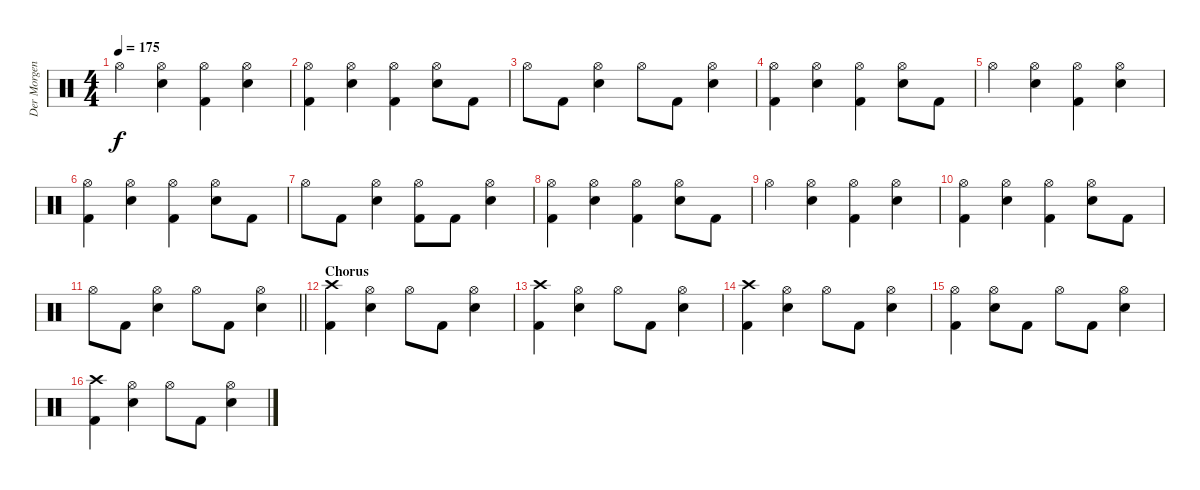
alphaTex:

\track ("Der Morgenstern" "Der Morgen") {instrument percussion}
\staff {score}
\articulation defaults
\ts (4 4)
\tempo 175
\clef neutral
\ks c "Hi-Hat (open)".4{dy f}
("Hi-Hat (open)" "Electric Snare (hit)").4 ("Hi-Hat (open)" "Kick (hit) 2").4 ("Hi-Hat (open)" "Electric Snare (hit)").4 |
("Hi-Hat (open)" "Kick (hit) 2").4 ("Hi-Hat (open)" "Electric Snare (hit)").4 ("Hi-Hat (open)" "Kick (hit) 2").4 ("Hi-Hat (open)" "Electric Snare (hit)").8 "Kick (hit) 2".8 |
"Hi-Hat (open)".8 "Kick (hit) 2".8 ("Hi-Hat (open)" "Electric Snare (hit)").4 "Hi-Hat (open)".8 "Kick (hit) 2".8 ("Hi-Hat (open)" "Electric Snare (hit)").4 |
("Hi-Hat (open)" "Kick (hit) 2").4 ("Hi-Hat (open)" "Electric Snare (hit)").4 ("Hi-Hat (open)" "Kick (hit) 2").4 ("Hi-Hat (open)" "Electric Snare (hit)").8 "Kick (hit) 2".8 |
"Hi-Hat (open)".4 ("Hi-Hat (open)" "Electric Snare (hit)").4 ("Hi-Hat (open)" "Kick (hit) 2").4 ("Hi-Hat (open)" "Electric Snare (hit)").4 |
("Hi-Hat (open)" "Kick (hit) 2").4 ("Hi-Hat (open)" "Electric Snare (hit)").4 ("Hi-Hat (open)" "Kick (hit) 2").4 ("Hi-Hat (open)" "Electric Snare (hit)").8 "Kick (hit) 2".8 |
"Hi-Hat (open)".8 "Kick (hit) 2".8 ("Hi-Hat (open)" "Electric Snare (hit)").4 ("Hi-Hat (open)" "Kick (hit) 2").8 "Kick (hit) 2".8 ("Hi-Hat (open)" "Electric Snare (hit)").4 |
("Hi-Hat (open)" "Kick (hit) 2").4 ("Hi-Hat (open)" "Electric Snare (hit)").4 ("Hi-Hat (open)" "Kick (hit) 2").4 ("Hi-Hat (open)" "Electric Snare (hit)").8 "Kick (hit) 2".8 |
"Hi-Hat (open)".4 ("Hi-Hat (open)" "Electric Snare (hit)").4 ("Hi-Hat (open)" "Kick (hit) 2").4 ("Hi-Hat (open)" "Electric Snare (hit)").4 |
("Hi-Hat (open)" "Kick (hit) 2").4 ("Hi-Hat (open)" "Electric Snare (hit)").4 ("Hi-Hat (open)" "Kick (hit) 2").4 ("Hi-Hat (open)" "Electric Snare (hit)").8 "Kick (hit) 2".8 |
\barLineRight lightlight "Hi-Hat (open)".8 "Kick (hit) 2".8
("Hi-Hat (open)" "Electric Snare (hit)").4 "Hi-Hat (open)".8 "Kick (hit) 2".8 ("Hi-Hat (open)" "Electric Snare (hit)").4 |
\section ("" "Chorus")
("Crash high (hit)" "Kick (hit) 2").4 ("Hi-Hat (open)" "Electric Snare (hit)").4 "Hi-Hat (open)".8 "Kick (hit) 2".8 ("Hi-Hat (open)" "Electric Snare (hit)").4 |
("Crash high (hit)" "Kick (hit) 2").4 ("Hi-Hat (open)" "Electric Snare (hit)").4 "Hi-Hat (open)".8 "Kick (hit) 2".8 ("Hi-Hat (open)" "Electric Snare (hit)").4 |
("Crash high (hit)" "Kick (hit) 2").4 ("Hi-Hat (open)" "Electric Snare (hit)").4 "Hi-Hat (open)".8 "Kick (hit) 2".8 ("Hi-Hat (open)" "Electric Snare (hit)").4 |
("Hi-Hat (open)" "Kick (hit) 2").4 ("Hi-Hat (open)" "Electric Snare (hit)").8 "Kick (hit) 2".8 "Hi-Hat (open)".8 "Kick (hit) 2".8 ("Hi-Hat (open)" "Electric Snare (hit)").4 |
("Crash high (hit)" "Kick (hit) 2").4 ("Hi-Hat (open)" "Electric Snare (hit)").4 "Hi-Hat (open)".8 "Kick (hit) 2".8 ("Hi-Hat (open)" "Electric Snare (hit)").4
